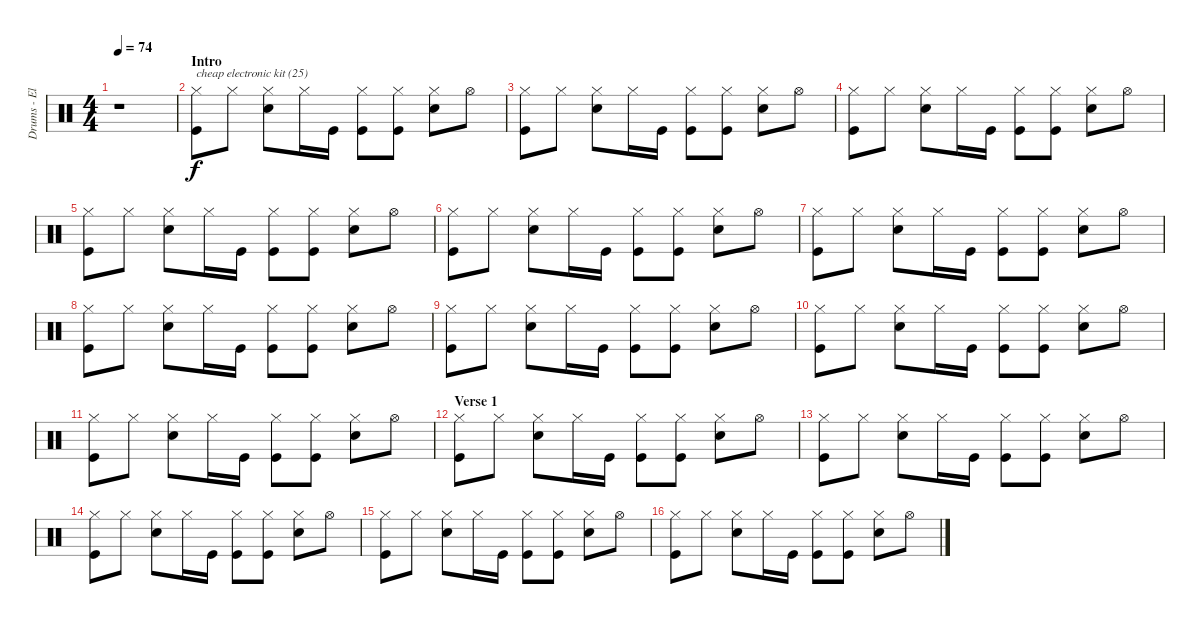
\track ("Drums - Electronic Kit then Real Drums!!" "Drums - El") {instrument percussion}
\staff {score}
\articulation defaults
\ts (4 4)
\tempo 74
\clef neutral
\ks c
r.1{dy f} |
\section ("" "Intro")
("Hi-Hat (closed)" "Kick (hit)").8{txt "cheap electronic kit (25)"} "Hi-Hat (closed)".8 ("Hi-Hat (closed)" "Snare (hit) 2").8 "Hi-Hat (closed)".16 "Kick (hit)".16 ("Hi-Hat (closed)" "Kick (hit)").8 ("Hi-Hat (closed)" "Kick (hit)").8 ("Hi-Hat (closed)" "Snare (hit) 2").8 "Hi-Hat (open)".8 |
("Hi-Hat (closed)" "Kick (hit)").8 "Hi-Hat (closed)".8 ("Hi-Hat (closed)" "Snare (hit) 2").8 "Hi-Hat (closed)".16 "Kick (hit)".16 ("Hi-Hat (closed)" "Kick (hit)").8 ("Hi-Hat (closed)" "Kick (hit)").8 ("Hi-Hat (closed)" "Snare (hit) 2").8 "Hi-Hat (open)".8 |
("Hi-Hat (closed)" "Kick (hit)").8 "Hi-Hat (closed)".8 ("Hi-Hat (closed)" "Snare (hit) 2").8 "Hi-Hat (closed)".16 "Kick (hit)".16 ("Hi-Hat (closed)" "Kick (hit)").8 ("Hi-Hat (closed)" "Kick (hit)").8 ("Hi-Hat (closed)" "Snare (hit) 2").8 "Hi-Hat (open)".8 |
("Hi-Hat (closed)" "Kick (hit)").8 "Hi-Hat (closed)".8 ("Hi-Hat (closed)" "Snare (hit) 2").8 "Hi-Hat (closed)".16 "Kick (hit)".16 ("Hi-Hat (closed)" "Kick (hit)").8 ("Hi-Hat (closed)" "Kick (hit)").8 ("Hi-Hat (closed)" "Snare (hit) 2").8 "Hi-Hat (open)".8 |
("Hi-Hat (closed)" "Kick (hit)").8 "Hi-Hat (closed)".8 ("Hi-Hat (closed)" "Snare (hit) 2").8 "Hi-Hat (closed)".16 "Kick (hit)".16 ("Hi-Hat (closed)" "Kick (hit)").8 ("Hi-Hat (closed)" "Kick (hit)").8 ("Hi-Hat (closed)" "Snare (hit) 2").8 "Hi-Hat (open)".8 |
("Hi-Hat (closed)" "Kick (hit)").8 "Hi-Hat (closed)".8 ("Hi-Hat (closed)" "Snare (hit) 2").8 "Hi-Hat (closed)".16 "Kick (hit)".16 ("Hi-Hat (closed)" "Kick (hit)").8 ("Hi-Hat (closed)" "Kick (hit)").8 ("Hi-Hat (closed)" "Snare (hit) 2").8 "Hi-Hat (open)".8 |
("Hi-Hat (closed)" "Kick (hit)").8 "Hi-Hat (closed)".8 ("Hi-Hat (closed)" "Snare (hit) 2").8 "Hi-Hat (closed)".16 "Kick (hit)".16 ("Hi-Hat (closed)" "Kick (hit)").8 ("Hi-Hat (closed)" "Kick (hit)").8 ("Hi-Hat (closed)" "Snare (hit) 2").8 "Hi-Hat (open)".8 |
("Hi-Hat (closed)" "Kick (hit)").8 "Hi-Hat (closed)".8 ("Hi-Hat (closed)" "Snare (hit) 2").8 "Hi-Hat (closed)".16 "Kick (hit)".16 ("Hi-Hat (closed)" "Kick (hit)").8 ("Hi-Hat (closed)" "Kick (hit)").8 ("Hi-Hat (closed)" "Snare (hit) 2").8 "Hi-Hat (open)".8 |
("Hi-Hat (closed)" "Kick (hit)").8 "Hi-Hat (closed)".8 ("Hi-Hat (closed)" "Snare (hit) 2").8 "Hi-Hat (closed)".16 "Kick (hit)".16 ("Hi-Hat (closed)" "Kick (hit)").8 ("Hi-Hat (closed)" "Kick (hit)").8 ("Hi-Hat (closed)" "Snare (hit) 2").8 "Hi-Hat (open)".8 |
("Hi-Hat (closed)" "Kick (hit)").8 "Hi-Hat (closed)".8 ("Hi-Hat (closed)" "Snare (hit) 2").8 "Hi-Hat (closed)".16 "Kick (hit)".16 ("Hi-Hat (closed)" "Kick (hit)").8 ("Hi-Hat (closed)" "Kick (hit)").8 ("Hi-Hat (closed)" "Snare (hit) 2").8 "Hi-Hat (open)".8 |
\section ("" "Verse 1")
("Hi-Hat (closed)" "Kick (hit)").8 "Hi-Hat (closed)".8 ("Hi-Hat (closed)" "Snare (hit) 2").8 "Hi-Hat (closed)".16 "Kick (hit)".16 ("Hi-Hat (closed)" "Kick (hit)").8 ("Hi-Hat (closed)" "Kick (hit)").8 ("Hi-Hat (closed)" "Snare (hit) 2").8 "Hi-Hat (open)".8 |
("Hi-Hat (closed)" "Kick (hit)").8 "Hi-Hat (closed)".8 ("Hi-Hat (closed)" "Snare (hit) 2").8 "Hi-Hat (closed)".16 "Kick (hit)".16 ("Hi-Hat (closed)" "Kick (hit)").8 ("Hi-Hat (closed)" "Kick (hit)").8 ("Hi-Hat (closed)" "Snare (hit) 2").8 "Hi-Hat (open)".8 |
("Hi-Hat (closed)" "Kick (hit)").8 "Hi-Hat (closed)".8 ("Hi-Hat (closed)" "Snare (hit) 2").8 "Hi-Hat (closed)".16 "Kick (hit)".16 ("Hi-Hat (closed)" "Kick (hit)").8 ("Hi-Hat (closed)" "Kick (hit)").8 ("Hi-Hat (closed)" "Snare (hit) 2").8 "Hi-Hat (open)".8 |
("Hi-Hat (closed)" "Kick (hit)").8 "Hi-Hat (closed)".8 ("Hi-Hat (closed)" "Snare (hit) 2").8 "Hi-Hat (closed)".16 "Kick (hit)".16 ("Hi-Hat (closed)" "Kick (hit)").8 ("Hi-Hat (closed)" "Kick (hit)").8 ("Hi-Hat (closed)" "Snare (hit) 2").8 "Hi-Hat (open)".8 |
("Hi-Hat (closed)" "Kick (hit)").8 "Hi-Hat (closed)".8 ("Hi-Hat (closed)" "Snare (hit) 2").8 "Hi-Hat (closed)".16 "Kick (hit)".16 ("Hi-Hat (closed)" "Kick (hit)").8 ("Hi-Hat (closed)" "Kick (hit)").8 ("Hi-Hat (closed)" "Snare (hit) 2").8 "Hi-Hat (open)".8
